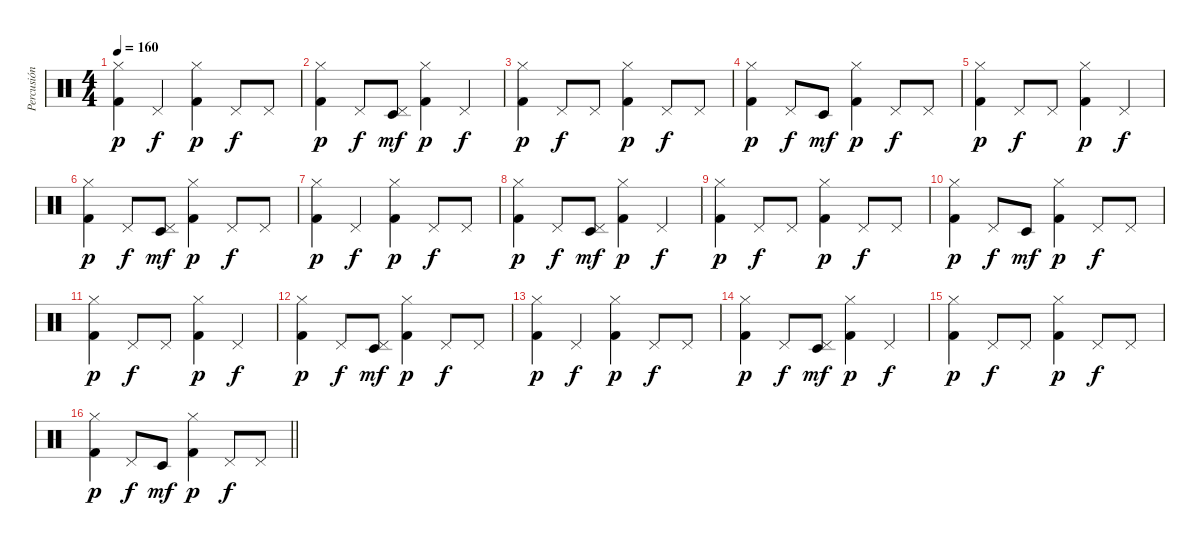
\track ("Percusión" "Percusión") {instrument percussion}
\staff {score}
\articulation defaults
\ts (4 4)
\tempo 160
\clef neutral
\ks c
("Kick (hit) 2" "Hi-Hat (closed)").4{dy p} "Pedal Hi-Hat (hit)".4{dy f} ("Kick (hit) 2" "Hi-Hat (closed)").4{dy p} "Pedal Hi-Hat (hit)".8{dy f} "Pedal Hi-Hat (hit)".8 |
("Kick (hit) 2" "Hi-Hat (closed)").4{dy p} "Pedal Hi-Hat (hit)".8{dy f} ("Timbale low (hit)" "Pedal Hi-Hat (hit)").8{dy mf} ("Kick (hit) 2" "Hi-Hat (closed)").4{dy p} "Pedal Hi-Hat (hit)".4{dy f} |
("Kick (hit) 2" "Hi-Hat (closed)").4{dy p} "Pedal Hi-Hat (hit)".8{dy f} "Pedal Hi-Hat (hit)".8 ("Kick (hit) 2" "Hi-Hat (closed)").4{dy p} "Pedal Hi-Hat (hit)".8{dy f} "Pedal Hi-Hat (hit)".8 |
("Kick (hit) 2" "Hi-Hat (closed)").4{dy p} "Pedal Hi-Hat (hit)".8{dy f} "Timbale low (hit)".8{dy mf} ("Kick (hit) 2" "Hi-Hat (closed)").4{dy p} "Pedal Hi-Hat (hit)".8{dy f} "Pedal Hi-Hat (hit)".8 |
("Kick (hit) 2" "Hi-Hat (closed)").4{dy p} "Pedal Hi-Hat (hit)".8{dy f} "Pedal Hi-Hat (hit)".8 ("Kick (hit) 2" "Hi-Hat (closed)").4{dy p} "Pedal Hi-Hat (hit)".4{dy f} |
("Kick (hit) 2" "Hi-Hat (closed)").4{dy p} "Pedal Hi-Hat (hit)".8{dy f} ("Timbale low (hit)" "Pedal Hi-Hat (hit)").8{dy mf} ("Kick (hit) 2" "Hi-Hat (closed)").4{dy p} "Pedal Hi-Hat (hit)".8{dy f} "Pedal Hi-Hat (hit)".8 |
("Kick (hit) 2" "Hi-Hat (closed)").4{dy p} "Pedal Hi-Hat (hit)".4{dy f} ("Kick (hit) 2" "Hi-Hat (closed)").4{dy p} "Pedal Hi-Hat (hit)".8{dy f} "Pedal Hi-Hat (hit)".8 |
("Kick (hit) 2" "Hi-Hat (closed)").4{dy p} "Pedal Hi-Hat (hit)".8{dy f} ("Timbale low (hit)" "Pedal Hi-Hat (hit)").8{dy mf} ("Kick (hit) 2" "Hi-Hat (closed)").4{dy p} "Pedal Hi-Hat (hit)".4{dy f} |
("Kick (hit) 2" "Hi-Hat (closed)").4{dy p} "Pedal Hi-Hat (hit)".8{dy f} "Pedal Hi-Hat (hit)".8 ("Kick (hit) 2" "Hi-Hat (closed)").4{dy p} "Pedal Hi-Hat (hit)".8{dy f} "Pedal Hi-Hat (hit)".8 |
("Kick (hit) 2" "Hi-Hat (closed)").4{dy p} "Pedal Hi-Hat (hit)".8{dy f} "Timbale low (hit)".8{dy mf} ("Kick (hit) 2" "Hi-Hat (closed)").4{dy p} "Pedal Hi-Hat (hit)".8{dy f} "Pedal Hi-Hat (hit)".8 |
("Kick (hit) 2" "Hi-Hat (closed)").4{dy p} "Pedal Hi-Hat (hit)".8{dy f} "Pedal Hi-Hat (hit)".8 ("Kick (hit) 2" "Hi-Hat (closed)").4{dy p} "Pedal Hi-Hat (hit)".4{dy f} |
("Kick (hit) 2" "Hi-Hat (closed)").4{dy p} "Pedal Hi-Hat (hit)".8{dy f} ("Timbale low (hit)" "Pedal Hi-Hat (hit)").8{dy mf} ("Kick (hit) 2" "Hi-Hat (closed)").4{dy p} "Pedal Hi-Hat (hit)".8{dy f} "Pedal Hi-Hat (hit)".8 |
("Kick (hit) 2" "Hi-Hat (closed)").4{dy p} "Pedal Hi-Hat (hit)".4{dy f} ("Kick (hit) 2" "Hi-Hat (closed)").4{dy p} "Pedal Hi-Hat (hit)".8{dy f} "Pedal Hi-Hat (hit)".8 |
("Kick (hit) 2" "Hi-Hat (closed)").4{dy p} "Pedal Hi-Hat (hit)".8{dy f} ("Timbale low (hit)" "Pedal Hi-Hat (hit)").8{dy mf} ("Kick (hit) 2" "Hi-Hat (closed)").4{dy p} "Pedal Hi-Hat (hit)".4{dy f} |
("Kick (hit) 2" "Hi-Hat (closed)").4{dy p} "Pedal Hi-Hat (hit)".8{dy f} "Pedal Hi-Hat (hit)".8 ("Kick (hit) 2" "Hi-Hat (closed)").4{dy p} "Pedal Hi-Hat (hit)".8{dy f} "Pedal Hi-Hat (hit)".8 |
\barLineRight lightlight
("Kick (hit) 2" "Hi-Hat (closed)").4{dy p} "Pedal Hi-Hat (hit)".8{dy f} "Timbale low (hit)".8{dy mf} ("Kick (hit) 2" "Hi-Hat (closed)").4{dy p} "Pedal Hi-Hat (hit)".8{dy f} "Pedal Hi-Hat (hit)".8
